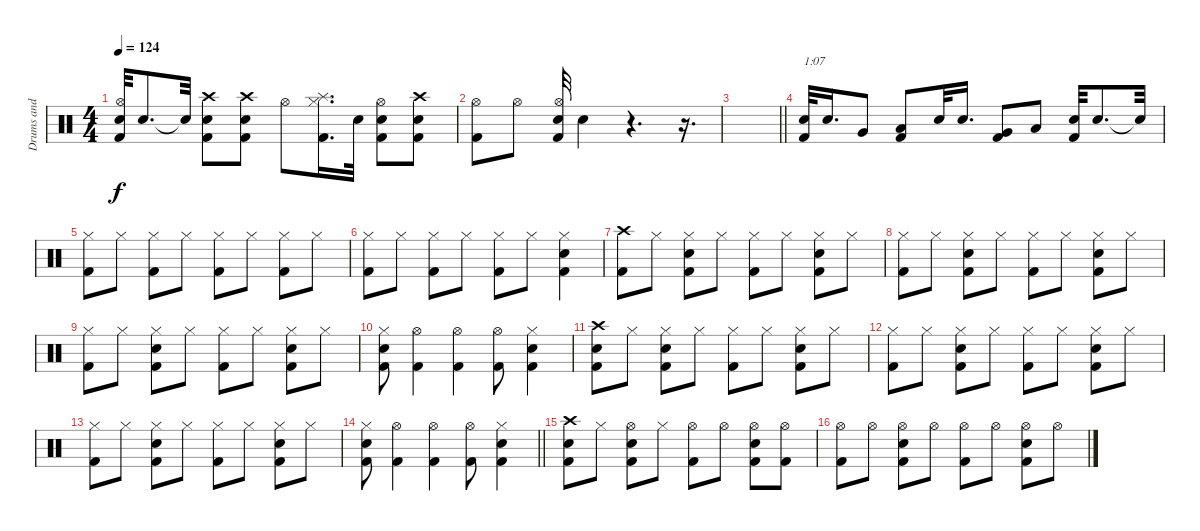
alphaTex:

\track ("Drums and Percussie" "Drums and ") {instrument percussion}
\staff {score}
\articulation defaults
\ts (4 4)
\tempo 124
\clef neutral
\ks c
("Kick (hit) 2" "Hi-Hat (open)" "Snare (hit) 2").32{dy f} "Snare (hit) 2".8{d} "Snare (hit)"{t}.32 ("Crash high (hit)" "Kick (hit) 2" "Snare (hit) 2").8 ("Crash high (hit)" "Kick (hit) 2" "Snare (hit) 2").8 "Hi-Hat (open)".8 ("Kick (hit) 2" "Hi-Hat (closed)" "Splash (hit)").16{d} "Snare (hit) 2".32 ("Hi-Hat (open)" "Kick (hit) 2" "Snare (hit) 2").8 ("Snare (hit) 2" "Crash high (hit)" "Kick (hit) 2").8 |
("Kick (hit) 2" "Hi-Hat (open)").8 "Hi-Hat (open)".8 ("Snare (hit) 2" "Hi-Hat (open)" "Kick (hit) 2").32 "Snare (hit) 2".4 r.4{d} r.16{d} |
\barLineRight lightlight
|
("Snare (hit) 2" "Kick (hit) 2").32{txt "1:07"} "Snare (hit) 2".16{d} "Very Low Tom (hit)".8 ("Low Floor Tom (hit)" "Kick (hit) 2").8 "Snare (hit) 2".32 "Snare (hit) 2".16{d} ("Very Low Tom (hit)" "Kick (hit) 2").8 "Low Floor Tom (hit)".8 ("Kick (hit) 2" "Snare (hit) 2").32 "Snare (hit) 2".8{d} "Snare (hit)"{t}.32 |
("Kick (hit) 2" "Hi-Hat (closed)").8 "Hi-Hat (closed)".8 ("Kick (hit) 2" "Hi-Hat (closed)").8 "Hi-Hat (closed)".8 ("Kick (hit) 2" "Hi-Hat (closed)").8 "Hi-Hat (closed)".8 ("Kick (hit) 2" "Hi-Hat (closed)").8 "Hi-Hat (closed)".8 |
("Hi-Hat (closed)" "Kick (hit) 2").8 "Hi-Hat (closed)".8 ("Kick (hit) 2" "Hi-Hat (closed)").8 "Hi-Hat (closed)".8 ("Kick (hit) 2" "Hi-Hat (closed)").8 "Hi-Hat (closed)".8 ("Kick (hit) 2" "Snare (hit) 2" "Hi-Hat (closed)").4 |
("Crash high (hit)" "Kick (hit) 2").8 "Hi-Hat (closed)".8 ("Kick (hit) 2" "Hi-Hat (closed)" "Snare (hit) 2").8 "Hi-Hat (closed)".8 ("Hi-Hat (closed)" "Kick (hit) 2").8 "Hi-Hat (closed)".8 ("Kick (hit) 2" "Snare (hit) 2" "Hi-Hat (closed)").8 "Hi-Hat (closed)".8 |
("Hi-Hat (closed)" "Kick (hit) 2").8 "Hi-Hat (closed)".8 ("Kick (hit) 2" "Hi-Hat (closed)" "Snare (hit) 2").8 "Hi-Hat (closed)".8 ("Kick (hit) 2" "Hi-Hat (closed)").8 "Hi-Hat (closed)".8 ("Hi-Hat (closed)" "Kick (hit) 2" "Snare (hit) 2").8 "Hi-Hat (closed)".8 |
("Kick (hit) 2" "Hi-Hat (closed)").8 "Hi-Hat (closed)".8 ("Snare (hit) 2" "Hi-Hat (closed)" "Kick (hit) 2").8 "Hi-Hat (closed)".8 ("Kick (hit) 2" "Hi-Hat (closed)").8 "Hi-Hat (closed)".8 ("Kick (hit) 2" "Hi-Hat (closed)" "Snare (hit) 2").8 "Hi-Hat (closed)".8 |
("Snare (hit) 2" "Hi-Hat (closed)" "Kick (hit) 2").8 ("Kick (hit) 2" "Hi-Hat (open)").4 ("Kick (hit) 2" "Hi-Hat (open)").4 ("Kick (hit) 2" "Hi-Hat (open)").8 ("Snare (hit) 2" "Kick (hit) 2" "Hi-Hat (closed)").4 |
("Crash high (hit)" "Kick (hit) 2" "Snare (hit) 2").8 "Hi-Hat (closed)".8 ("Hi-Hat (closed)" "Kick (hit) 2" "Snare (hit) 2").8 "Hi-Hat (closed)".8 ("Kick (hit) 2" "Hi-Hat (closed)").8 "Hi-Hat (closed)".8 ("Kick (hit) 2" "Hi-Hat (closed)" "Snare (hit) 2").8 "Hi-Hat (closed)".8 |
("Hi-Hat (closed)" "Kick (hit) 2").8 "Hi-Hat (closed)".8 ("Kick (hit) 2" "Hi-Hat (closed)" "Snare (hit) 2").8 "Hi-Hat (closed)".8 ("Hi-Hat (closed)" "Kick (hit) 2").8 "Hi-Hat (closed)".8 ("Kick (hit) 2" "Hi-Hat (closed)" "Snare (hit) 2").8 "Hi-Hat (closed)".8 |
("Hi-Hat (closed)" "Kick (hit) 2").8 "Hi-Hat (closed)".8 ("Snare (hit) 2" "Kick (hit) 2" "Hi-Hat (closed)").8 "Hi-Hat (closed)".8 ("Kick (hit) 2" "Hi-Hat (closed)").8 "Hi-Hat (closed)".8 ("Snare (hit) 2" "Hi-Hat (closed)" "Kick (hit) 2").8 "Hi-Hat (closed)".8 |
\barLineRight lightlight
("Snare (hit) 2" "Hi-Hat (closed)" "Kick (hit) 2").8 ("Kick (hit) 2" "Hi-Hat (open)").4 ("Kick (hit) 2" "Hi-Hat (open)").4 ("Kick (hit) 2" "Hi-Hat (open)").8 ("Snare (hit) 2" "Kick (hit) 2" "Hi-Hat (closed)").4 |
("Crash high (hit)" "Kick (hit) 2" "Snare (hit) 2").8 "Hi-Hat (closed)".8 ("Kick (hit) 2" "Hi-Hat (open)" "Snare (hit) 2").8 "Hi-Hat (closed)".8 ("Kick (hit) 2" "Hi-Hat (open)").8 "Hi-Hat (open)".8 ("Snare (hit) 2" "Hi-Hat (open)" "Kick (hit) 2").8 ("Hi-Hat (open)" "Kick (hit) 2").8 |
("Hi-Hat (open)" "Kick (hit) 2").8 "Hi-Hat (open)".8 ("Kick (hit) 2" "Snare (hit) 2" "Hi-Hat (open)").8 "Hi-Hat (open)".8 ("Kick (hit) 2" "Hi-Hat (open)").8 "Hi-Hat (open)".8 ("Hi-Hat (open)" "Snare (hit) 2" "Kick (hit) 2").8 "Hi-Hat (open)".8
